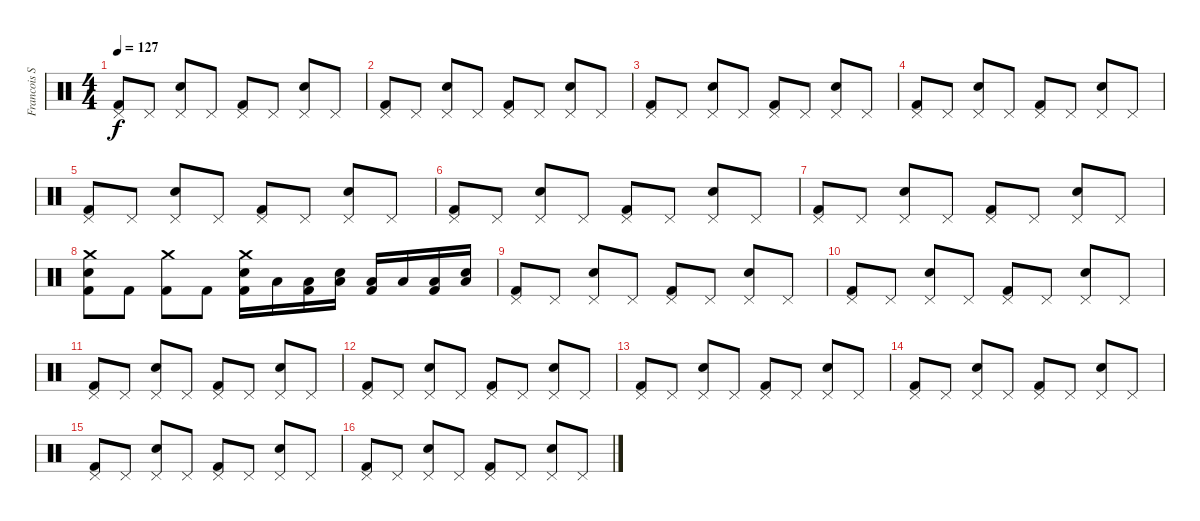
\track ("Francois Soulier" "Francois S") {instrument percussion}
\staff {score}
\articulation defaults
\ts (4 4)
\tempo 127
\clef neutral
\ks c
("Kick (hit) 2" "Pedal Hi-Hat (hit)").8{dy f} "Pedal Hi-Hat (hit)".8 ("Snare (hit) 2" "Pedal Hi-Hat (hit)").8 "Pedal Hi-Hat (hit)".8 ("Kick (hit) 2" "Pedal Hi-Hat (hit)").8 "Pedal Hi-Hat (hit)".8 ("Snare (hit) 2" "Pedal Hi-Hat (hit)").8 "Pedal Hi-Hat (hit)".8 |
("Kick (hit) 2" "Pedal Hi-Hat (hit)").8 "Pedal Hi-Hat (hit)".8 ("Snare (hit) 2" "Pedal Hi-Hat (hit)").8 "Pedal Hi-Hat (hit)".8 ("Kick (hit) 2" "Pedal Hi-Hat (hit)").8 "Pedal Hi-Hat (hit)".8 ("Snare (hit) 2" "Pedal Hi-Hat (hit)").8 "Pedal Hi-Hat (hit)".8 |
("Kick (hit) 2" "Pedal Hi-Hat (hit)").8 "Pedal Hi-Hat (hit)".8 ("Snare (hit) 2" "Pedal Hi-Hat (hit)").8 "Pedal Hi-Hat (hit)".8 ("Kick (hit) 2" "Pedal Hi-Hat (hit)").8 "Pedal Hi-Hat (hit)".8 ("Snare (hit) 2" "Pedal Hi-Hat (hit)").8 "Pedal Hi-Hat (hit)".8 |
("Kick (hit) 2" "Pedal Hi-Hat (hit)").8 "Pedal Hi-Hat (hit)".8 ("Snare (hit) 2" "Pedal Hi-Hat (hit)").8 "Pedal Hi-Hat (hit)".8 ("Kick (hit) 2" "Pedal Hi-Hat (hit)").8 "Pedal Hi-Hat (hit)".8 ("Snare (hit) 2" "Pedal Hi-Hat (hit)").8 "Pedal Hi-Hat (hit)".8 |
("Kick (hit) 2" "Pedal Hi-Hat (hit)").8 "Pedal Hi-Hat (hit)".8 ("Snare (hit) 2" "Pedal Hi-Hat (hit)").8 "Pedal Hi-Hat (hit)".8 ("Kick (hit) 2" "Pedal Hi-Hat (hit)").8 "Pedal Hi-Hat (hit)".8 ("Snare (hit) 2" "Pedal Hi-Hat (hit)").8 "Pedal Hi-Hat (hit)".8 |
("Kick (hit) 2" "Pedal Hi-Hat (hit)").8 "Pedal Hi-Hat (hit)".8 ("Snare (hit) 2" "Pedal Hi-Hat (hit)").8 "Pedal Hi-Hat (hit)".8 ("Kick (hit) 2" "Pedal Hi-Hat (hit)").8 "Pedal Hi-Hat (hit)".8 ("Snare (hit) 2" "Pedal Hi-Hat (hit)").8 "Pedal Hi-Hat (hit)".8 |
("Kick (hit) 2" "Pedal Hi-Hat (hit)").8 "Pedal Hi-Hat (hit)".8 ("Snare (hit) 2" "Pedal Hi-Hat (hit)").8 "Pedal Hi-Hat (hit)".8 ("Kick (hit) 2" "Pedal Hi-Hat (hit)").8 "Pedal Hi-Hat (hit)".8 ("Snare (hit) 2" "Pedal Hi-Hat (hit)").8 "Pedal Hi-Hat (hit)".8 |
("Snare (hit) 2" "Kick (hit) 2" "Crash medium (hit)").8 "Kick (hit) 2".8 ("Kick (hit) 2" "Crash medium (hit)").8 "Kick (hit) 2".8 ("Snare (hit) 2" "Kick (hit) 2" "Crash medium (hit)").16 "Low Floor Tom (hit)".16 ("Low Floor Tom (hit)" "Kick (hit) 2").16 ("Low Floor Tom (hit)" "Snare (hit) 2").16 ("Low Floor Tom (hit)" "Kick (hit) 2").16 "Low Floor Tom (hit)".16 ("Low Floor Tom (hit)" "Kick (hit) 2").16 ("Low Floor Tom (hit)" "Snare (hit) 2").16 |
("Kick (hit) 2" "Pedal Hi-Hat (hit)").8 "Pedal Hi-Hat (hit)".8 ("Snare (hit) 2" "Pedal Hi-Hat (hit)").8 "Pedal Hi-Hat (hit)".8 ("Kick (hit) 2" "Pedal Hi-Hat (hit)").8 "Pedal Hi-Hat (hit)".8 ("Snare (hit) 2" "Pedal Hi-Hat (hit)").8 "Pedal Hi-Hat (hit)".8 |
("Kick (hit) 2" "Pedal Hi-Hat (hit)").8 "Pedal Hi-Hat (hit)".8 ("Snare (hit) 2" "Pedal Hi-Hat (hit)").8 "Pedal Hi-Hat (hit)".8 ("Kick (hit) 2" "Pedal Hi-Hat (hit)").8 "Pedal Hi-Hat (hit)".8 ("Snare (hit) 2" "Pedal Hi-Hat (hit)").8 "Pedal Hi-Hat (hit)".8 |
("Kick (hit) 2" "Pedal Hi-Hat (hit)").8 "Pedal Hi-Hat (hit)".8 ("Snare (hit) 2" "Pedal Hi-Hat (hit)").8 "Pedal Hi-Hat (hit)".8 ("Kick (hit) 2" "Pedal Hi-Hat (hit)").8 "Pedal Hi-Hat (hit)".8 ("Snare (hit) 2" "Pedal Hi-Hat (hit)").8 "Pedal Hi-Hat (hit)".8 |
("Kick (hit) 2" "Pedal Hi-Hat (hit)").8 "Pedal Hi-Hat (hit)".8 ("Snare (hit) 2" "Pedal Hi-Hat (hit)").8 "Pedal Hi-Hat (hit)".8 ("Kick (hit) 2" "Pedal Hi-Hat (hit)").8 "Pedal Hi-Hat (hit)".8 ("Snare (hit) 2" "Pedal Hi-Hat (hit)").8 "Pedal Hi-Hat (hit)".8 |
("Kick (hit) 2" "Pedal Hi-Hat (hit)").8 "Pedal Hi-Hat (hit)".8 ("Snare (hit) 2" "Pedal Hi-Hat (hit)").8 "Pedal Hi-Hat (hit)".8 ("Kick (hit) 2" "Pedal Hi-Hat (hit)").8 "Pedal Hi-Hat (hit)".8 ("Snare (hit) 2" "Pedal Hi-Hat (hit)").8 "Pedal Hi-Hat (hit)".8 |
("Kick (hit) 2" "Pedal Hi-Hat (hit)").8 "Pedal Hi-Hat (hit)".8 ("Snare (hit) 2" "Pedal Hi-Hat (hit)").8 "Pedal Hi-Hat (hit)".8 ("Kick (hit) 2" "Pedal Hi-Hat (hit)").8 "Pedal Hi-Hat (hit)".8 ("Snare (hit) 2" "Pedal Hi-Hat (hit)").8 "Pedal Hi-Hat (hit)".8 |
("Kick (hit) 2" "Pedal Hi-Hat (hit)").8 "Pedal Hi-Hat (hit)".8 ("Snare (hit) 2" "Pedal Hi-Hat (hit)").8 "Pedal Hi-Hat (hit)".8 ("Kick (hit) 2" "Pedal Hi-Hat (hit)").8 "Pedal Hi-Hat (hit)".8 ("Snare (hit) 2" "Pedal Hi-Hat (hit)").8 "Pedal Hi-Hat (hit)".8 |
("Kick (hit) 2" "Pedal Hi-Hat (hit)").8 "Pedal Hi-Hat (hit)".8 ("Snare (hit) 2" "Pedal Hi-Hat (hit)").8 "Pedal Hi-Hat (hit)".8 ("Kick (hit) 2" "Pedal Hi-Hat (hit)").8 "Pedal Hi-Hat (hit)".8 ("Snare (hit) 2" "Pedal Hi-Hat (hit)").8 "Pedal Hi-Hat (hit)".8
